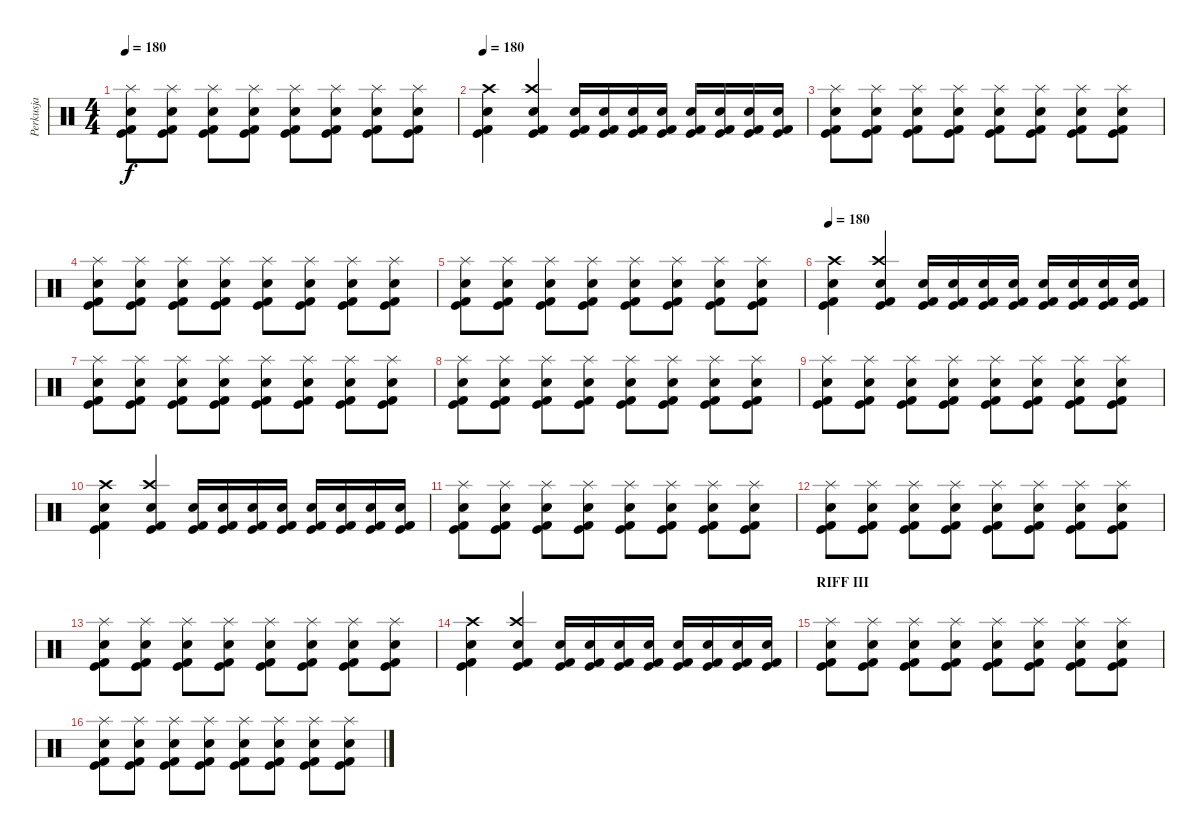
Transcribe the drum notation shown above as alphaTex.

\track ("Perkusja" "Perkusja") {instrument percussion}
\staff {score}
\articulation defaults
\ts (4 4)
\tempo 180
\clef neutral
\ks c
("Kick (hit)" "Kick (hit) 2" "Snare (hit) 2" "Splash (hit)").8{dy f} ("Kick (hit)" "Kick (hit) 2" "Snare (hit) 2" "Splash (hit)").8 ("Kick (hit)" "Kick (hit) 2" "Snare (hit) 2" "Splash (hit)").8 ("Kick (hit)" "Kick (hit) 2" "Snare (hit) 2" "Splash (hit)").8 ("Kick (hit)" "Kick (hit) 2" "Snare (hit) 2" "Splash (hit)").8 ("Kick (hit)" "Kick (hit) 2" "Snare (hit) 2" "Splash (hit)").8 ("Kick (hit)" "Kick (hit) 2" "Snare (hit) 2" "Splash (hit)").8 ("Kick (hit)" "Kick (hit) 2" "Snare (hit) 2" "Splash (hit)").8 |
\tempo 180
("Crash high (hit)" "Snare (hit) 2" "Kick (hit) 2" "Kick (hit)").4 ("Crash high (hit)" "Electric Snare (hit)" "Kick (hit) 2" "Kick (hit)").4 ("Snare (hit) 2" "Kick (hit) 2" "Kick (hit)").16 ("Snare (hit) 2" "Kick (hit) 2" "Kick (hit)").16 ("Snare (hit) 2" "Kick (hit) 2" "Kick (hit)").16 ("Snare (hit) 2" "Kick (hit) 2" "Kick (hit)").16 ("Snare (hit) 2" "Kick (hit) 2" "Kick (hit)").16 ("Snare (hit) 2" "Kick (hit) 2" "Kick (hit)").16 ("Snare (hit) 2" "Kick (hit) 2" "Kick (hit)").16 ("Snare (hit) 2" "Kick (hit) 2" "Kick (hit)").16 |
("Kick (hit)" "Kick (hit) 2" "Snare (hit) 2" "Splash (hit)").8 ("Kick (hit)" "Kick (hit) 2" "Snare (hit) 2" "Splash (hit)").8 ("Kick (hit)" "Kick (hit) 2" "Snare (hit) 2" "Splash (hit)").8 ("Kick (hit)" "Kick (hit) 2" "Snare (hit) 2" "Splash (hit)").8 ("Kick (hit)" "Kick (hit) 2" "Snare (hit) 2" "Splash (hit)").8 ("Kick (hit)" "Kick (hit) 2" "Snare (hit) 2" "Splash (hit)").8 ("Kick (hit)" "Kick (hit) 2" "Snare (hit) 2" "Splash (hit)").8 ("Kick (hit)" "Kick (hit) 2" "Snare (hit) 2" "Splash (hit)").8 |
("Kick (hit)" "Kick (hit) 2" "Snare (hit) 2" "Splash (hit)").8 ("Kick (hit)" "Kick (hit) 2" "Snare (hit) 2" "Splash (hit)").8 ("Kick (hit)" "Kick (hit) 2" "Snare (hit) 2" "Splash (hit)").8 ("Kick (hit)" "Kick (hit) 2" "Snare (hit) 2" "Splash (hit)").8 ("Kick (hit)" "Kick (hit) 2" "Snare (hit) 2" "Splash (hit)").8 ("Kick (hit)" "Kick (hit) 2" "Snare (hit) 2" "Splash (hit)").8 ("Kick (hit)" "Kick (hit) 2" "Snare (hit) 2" "Splash (hit)").8 ("Kick (hit)" "Kick (hit) 2" "Snare (hit) 2" "Splash (hit)").8 |
("Kick (hit)" "Kick (hit) 2" "Snare (hit) 2" "Splash (hit)").8 ("Kick (hit)" "Kick (hit) 2" "Snare (hit) 2" "Splash (hit)").8 ("Kick (hit)" "Kick (hit) 2" "Snare (hit) 2" "Splash (hit)").8 ("Kick (hit)" "Kick (hit) 2" "Snare (hit) 2" "Splash (hit)").8 ("Kick (hit)" "Kick (hit) 2" "Snare (hit) 2" "Splash (hit)").8 ("Kick (hit)" "Kick (hit) 2" "Snare (hit) 2" "Splash (hit)").8 ("Kick (hit)" "Kick (hit) 2" "Snare (hit) 2" "Splash (hit)").8 ("Kick (hit)" "Kick (hit) 2" "Snare (hit) 2" "Splash (hit)").8 |
\tempo 180
("Crash high (hit)" "Snare (hit) 2" "Kick (hit) 2" "Kick (hit)").4 ("Crash high (hit)" "Electric Snare (hit)" "Kick (hit) 2" "Kick (hit)").4 ("Snare (hit) 2" "Kick (hit) 2" "Kick (hit)").16 ("Snare (hit) 2" "Kick (hit) 2" "Kick (hit)").16 ("Snare (hit) 2" "Kick (hit) 2" "Kick (hit)").16 ("Snare (hit) 2" "Kick (hit) 2" "Kick (hit)").16 ("Snare (hit) 2" "Kick (hit) 2" "Kick (hit)").16 ("Snare (hit) 2" "Kick (hit) 2" "Kick (hit)").16 ("Snare (hit) 2" "Kick (hit) 2" "Kick (hit)").16 ("Snare (hit) 2" "Kick (hit) 2" "Kick (hit)").16 |
("Kick (hit)" "Kick (hit) 2" "Snare (hit) 2" "Splash (hit)").8 ("Kick (hit)" "Kick (hit) 2" "Snare (hit) 2" "Splash (hit)").8 ("Kick (hit)" "Kick (hit) 2" "Snare (hit) 2" "Splash (hit)").8 ("Kick (hit)" "Kick (hit) 2" "Snare (hit) 2" "Splash (hit)").8 ("Kick (hit)" "Kick (hit) 2" "Snare (hit) 2" "Splash (hit)").8 ("Kick (hit)" "Kick (hit) 2" "Snare (hit) 2" "Splash (hit)").8 ("Kick (hit)" "Kick (hit) 2" "Snare (hit) 2" "Splash (hit)").8 ("Kick (hit)" "Kick (hit) 2" "Snare (hit) 2" "Splash (hit)").8 |
("Kick (hit)" "Kick (hit) 2" "Snare (hit) 2" "Splash (hit)").8 ("Kick (hit)" "Kick (hit) 2" "Snare (hit) 2" "Splash (hit)").8 ("Kick (hit)" "Kick (hit) 2" "Snare (hit) 2" "Splash (hit)").8 ("Kick (hit)" "Kick (hit) 2" "Snare (hit) 2" "Splash (hit)").8 ("Kick (hit)" "Kick (hit) 2" "Snare (hit) 2" "Splash (hit)").8 ("Kick (hit)" "Kick (hit) 2" "Snare (hit) 2" "Splash (hit)").8 ("Kick (hit)" "Kick (hit) 2" "Snare (hit) 2" "Splash (hit)").8 ("Kick (hit)" "Kick (hit) 2" "Snare (hit) 2" "Splash (hit)").8 |
("Kick (hit)" "Kick (hit) 2" "Snare (hit) 2" "Splash (hit)").8 ("Kick (hit)" "Kick (hit) 2" "Snare (hit) 2" "Splash (hit)").8 ("Kick (hit)" "Kick (hit) 2" "Snare (hit) 2" "Splash (hit)").8 ("Kick (hit)" "Kick (hit) 2" "Snare (hit) 2" "Splash (hit)").8 ("Kick (hit)" "Kick (hit) 2" "Snare (hit) 2" "Splash (hit)").8 ("Kick (hit)" "Kick (hit) 2" "Snare (hit) 2" "Splash (hit)").8 ("Kick (hit)" "Kick (hit) 2" "Snare (hit) 2" "Splash (hit)").8 ("Kick (hit)" "Kick (hit) 2" "Snare (hit) 2" "Splash (hit)").8 |
("Crash high (hit)" "Snare (hit) 2" "Kick (hit) 2" "Kick (hit)").4 ("Crash high (hit)" "Electric Snare (hit)" "Kick (hit) 2" "Kick (hit)").4 ("Snare (hit) 2" "Kick (hit) 2" "Kick (hit)").16 ("Snare (hit) 2" "Kick (hit) 2" "Kick (hit)").16 ("Snare (hit) 2" "Kick (hit) 2" "Kick (hit)").16 ("Snare (hit) 2" "Kick (hit) 2" "Kick (hit)").16 ("Snare (hit) 2" "Kick (hit) 2" "Kick (hit)").16 ("Snare (hit) 2" "Kick (hit) 2" "Kick (hit)").16 ("Snare (hit) 2" "Kick (hit) 2" "Kick (hit)").16 ("Snare (hit) 2" "Kick (hit) 2" "Kick (hit)").16 |
("Kick (hit)" "Kick (hit) 2" "Snare (hit) 2" "Splash (hit)").8 ("Kick (hit)" "Kick (hit) 2" "Snare (hit) 2" "Splash (hit)").8 ("Kick (hit)" "Kick (hit) 2" "Snare (hit) 2" "Splash (hit)").8 ("Kick (hit)" "Kick (hit) 2" "Snare (hit) 2" "Splash (hit)").8 ("Kick (hit)" "Kick (hit) 2" "Snare (hit) 2" "Splash (hit)").8 ("Kick (hit)" "Kick (hit) 2" "Snare (hit) 2" "Splash (hit)").8 ("Kick (hit)" "Kick (hit) 2" "Snare (hit) 2" "Splash (hit)").8 ("Kick (hit)" "Kick (hit) 2" "Snare (hit) 2" "Splash (hit)").8 |
("Kick (hit)" "Kick (hit) 2" "Snare (hit) 2" "Splash (hit)").8 ("Kick (hit)" "Kick (hit) 2" "Snare (hit) 2" "Splash (hit)").8 ("Kick (hit)" "Kick (hit) 2" "Snare (hit) 2" "Splash (hit)").8 ("Kick (hit)" "Kick (hit) 2" "Snare (hit) 2" "Splash (hit)").8 ("Kick (hit)" "Kick (hit) 2" "Snare (hit) 2" "Splash (hit)").8 ("Kick (hit)" "Kick (hit) 2" "Snare (hit) 2" "Splash (hit)").8 ("Kick (hit)" "Kick (hit) 2" "Snare (hit) 2" "Splash (hit)").8 ("Kick (hit)" "Kick (hit) 2" "Snare (hit) 2" "Splash (hit)").8 |
("Kick (hit)" "Kick (hit) 2" "Snare (hit) 2" "Splash (hit)").8 ("Kick (hit)" "Kick (hit) 2" "Snare (hit) 2" "Splash (hit)").8 ("Kick (hit)" "Kick (hit) 2" "Snare (hit) 2" "Splash (hit)").8 ("Kick (hit)" "Kick (hit) 2" "Snare (hit) 2" "Splash (hit)").8 ("Kick (hit)" "Kick (hit) 2" "Snare (hit) 2" "Splash (hit)").8 ("Kick (hit)" "Kick (hit) 2" "Snare (hit) 2" "Splash (hit)").8 ("Kick (hit)" "Kick (hit) 2" "Snare (hit) 2" "Splash (hit)").8 ("Kick (hit)" "Kick (hit) 2" "Snare (hit) 2" "Splash (hit)").8 |
("Crash high (hit)" "Snare (hit) 2" "Kick (hit) 2" "Kick (hit)").4 ("Crash high (hit)" "Electric Snare (hit)" "Kick (hit) 2" "Kick (hit)").4 ("Snare (hit) 2" "Kick (hit) 2" "Kick (hit)").16 ("Snare (hit) 2" "Kick (hit) 2" "Kick (hit)").16 ("Snare (hit) 2" "Kick (hit) 2" "Kick (hit)").16 ("Snare (hit) 2" "Kick (hit) 2" "Kick (hit)").16 ("Snare (hit) 2" "Kick (hit) 2" "Kick (hit)").16 ("Snare (hit) 2" "Kick (hit) 2" "Kick (hit)").16 ("Snare (hit) 2" "Kick (hit) 2" "Kick (hit)").16 ("Snare (hit) 2" "Kick (hit) 2" "Kick (hit)").16 |
\section ("" "RIFF III")
("Kick (hit)" "Kick (hit) 2" "Snare (hit) 2" "Splash (hit)").8 ("Kick (hit)" "Kick (hit) 2" "Snare (hit) 2" "Splash (hit)").8 ("Kick (hit)" "Kick (hit) 2" "Snare (hit) 2" "Splash (hit)").8 ("Kick (hit)" "Kick (hit) 2" "Snare (hit) 2" "Splash (hit)").8 ("Kick (hit)" "Kick (hit) 2" "Snare (hit) 2" "Splash (hit)").8 ("Kick (hit)" "Kick (hit) 2" "Snare (hit) 2" "Splash (hit)").8 ("Kick (hit)" "Kick (hit) 2" "Snare (hit) 2" "Splash (hit)").8 ("Kick (hit)" "Kick (hit) 2" "Snare (hit) 2" "Splash (hit)").8 |
("Kick (hit)" "Kick (hit) 2" "Snare (hit) 2" "Splash (hit)").8 ("Kick (hit)" "Kick (hit) 2" "Snare (hit) 2" "Splash (hit)").8 ("Kick (hit)" "Kick (hit) 2" "Snare (hit) 2" "Splash (hit)").8 ("Kick (hit)" "Kick (hit) 2" "Snare (hit) 2" "Splash (hit)").8 ("Kick (hit)" "Kick (hit) 2" "Snare (hit) 2" "Splash (hit)").8 ("Kick (hit)" "Kick (hit) 2" "Snare (hit) 2" "Splash (hit)").8 ("Kick (hit)" "Kick (hit) 2" "Snare (hit) 2" "Splash (hit)").8 ("Kick (hit)" "Kick (hit) 2" "Snare (hit) 2" "Splash (hit)").8
